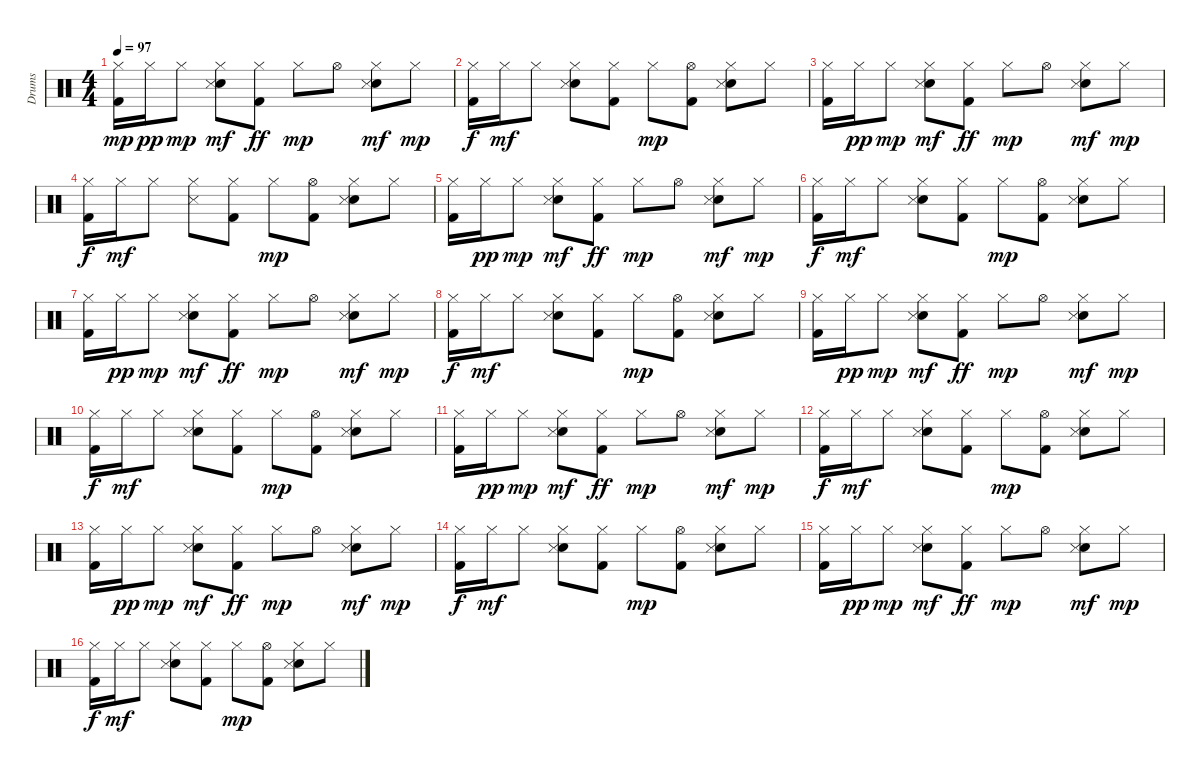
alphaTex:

\track ("Drums" "Drums") {instrument percussion}
\staff {score}
\articulation defaults
\ts (4 4)
\tempo 97
\clef neutral
\ks c
("Hi-Hat (closed)" "Kick (hit) 2").16{dy mp} "Hi-Hat (closed)".16{dy pp} "Hi-Hat (closed)".8{dy mp} ("Hi-Hat (closed)" "Hand Clap (hit)" "Snare (side stick) 3").8{dy mf} ("Hi-Hat (closed)" "Kick (hit) 2").8{dy ff} "Hi-Hat (closed)".8{dy mp} "Hi-Hat (open)".8 ("Hi-Hat (closed)" "Hand Clap (hit)" "Snare (side stick) 3").8{dy mf} "Hi-Hat (closed)".8{dy mp} |
("Hi-Hat (closed)" "Kick (hit) 2").16{dy f} "Hi-Hat (closed)".16{dy mf} "Hi-Hat (closed)".8 ("Hi-Hat (closed)" "Hand Clap (hit)" "Snare (side stick) 3").8 ("Hi-Hat (closed)" "Kick (hit) 2").8 "Hi-Hat (closed)".8{dy mp} ("Kick (hit) 2" "Hi-Hat (open)").8 ("Hi-Hat (closed)" "Hand Clap (hit)" "Snare (side stick) 3").8 "Hi-Hat (closed)".8 |
("Hi-Hat (closed)" "Kick (hit) 2").16 "Hi-Hat (closed)".16{dy pp} "Hi-Hat (closed)".8{dy mp} ("Hi-Hat (closed)" "Hand Clap (hit)" "Snare (side stick) 3").8{dy mf} ("Hi-Hat (closed)" "Kick (hit) 2").8{dy ff} "Hi-Hat (closed)".8{dy mp} "Hi-Hat (open)".8 ("Hi-Hat (closed)" "Hand Clap (hit)" "Snare (side stick) 3").8{dy mf} "Hi-Hat (closed)".8{dy mp} |
("Hi-Hat (closed)" "Kick (hit) 2").16{dy f} "Hi-Hat (closed)".16{dy mf} "Hi-Hat (closed)".8 ("Hi-Hat (closed)" "Snare (side stick) 3").8 ("Hi-Hat (closed)" "Kick (hit) 2").8 "Hi-Hat (closed)".8{dy mp} ("Kick (hit) 2" "Hi-Hat (open)").8 ("Hand Clap (hit)" "Hi-Hat (closed)" "Snare (side stick) 3").8 "Hi-Hat (closed)".8 |
("Hi-Hat (closed)" "Kick (hit) 2").16 "Hi-Hat (closed)".16{dy pp} "Hi-Hat (closed)".8{dy mp} ("Hi-Hat (closed)" "Hand Clap (hit)" "Snare (side stick) 3").8{dy mf} ("Hi-Hat (closed)" "Kick (hit) 2").8{dy ff} "Hi-Hat (closed)".8{dy mp} "Hi-Hat (open)".8 ("Hi-Hat (closed)" "Hand Clap (hit)" "Snare (side stick) 3").8{dy mf} "Hi-Hat (closed)".8{dy mp} |
("Hi-Hat (closed)" "Kick (hit) 2").16{dy f} "Hi-Hat (closed)".16{dy mf} "Hi-Hat (closed)".8 ("Hi-Hat (closed)" "Hand Clap (hit)" "Snare (side stick) 3").8 ("Hi-Hat (closed)" "Kick (hit) 2").8 "Hi-Hat (closed)".8{dy mp} ("Kick (hit) 2" "Hi-Hat (open)").8 ("Hi-Hat (closed)" "Hand Clap (hit)" "Snare (side stick) 3").8 "Hi-Hat (closed)".8 |
("Hi-Hat (closed)" "Kick (hit) 2").16 "Hi-Hat (closed)".16{dy pp} "Hi-Hat (closed)".8{dy mp} ("Hi-Hat (closed)" "Hand Clap (hit)" "Snare (side stick) 3").8{dy mf} ("Hi-Hat (closed)" "Kick (hit) 2").8{dy ff} "Hi-Hat (closed)".8{dy mp} "Hi-Hat (open)".8 ("Hi-Hat (closed)" "Hand Clap (hit)" "Snare (side stick) 3").8{dy mf} "Hi-Hat (closed)".8{dy mp} |
("Hi-Hat (closed)" "Kick (hit) 2").16{dy f} "Hi-Hat (closed)".16{dy mf} "Hi-Hat (closed)".8 ("Hi-Hat (closed)" "Hand Clap (hit)" "Snare (side stick) 3").8 ("Hi-Hat (closed)" "Kick (hit) 2").8 "Hi-Hat (closed)".8{dy mp} ("Kick (hit) 2" "Hi-Hat (open)").8 ("Hi-Hat (closed)" "Hand Clap (hit)" "Snare (side stick) 3").8 "Hi-Hat (closed)".8 |
("Hi-Hat (closed)" "Kick (hit) 2").16 "Hi-Hat (closed)".16{dy pp} "Hi-Hat (closed)".8{dy mp} ("Hi-Hat (closed)" "Hand Clap (hit)" "Snare (side stick) 3").8{dy mf} ("Hi-Hat (closed)" "Kick (hit) 2").8{dy ff} "Hi-Hat (closed)".8{dy mp} "Hi-Hat (open)".8 ("Hi-Hat (closed)" "Hand Clap (hit)" "Snare (side stick) 3").8{dy mf} "Hi-Hat (closed)".8{dy mp} |
("Hi-Hat (closed)" "Kick (hit) 2").16{dy f} "Hi-Hat (closed)".16{dy mf} "Hi-Hat (closed)".8 ("Hi-Hat (closed)" "Hand Clap (hit)" "Snare (side stick) 3").8 ("Hi-Hat (closed)" "Kick (hit) 2").8 "Hi-Hat (closed)".8{dy mp} ("Kick (hit) 2" "Hi-Hat (open)").8 ("Hi-Hat (closed)" "Hand Clap (hit)" "Snare (side stick) 3").8 "Hi-Hat (closed)".8 |
("Hi-Hat (closed)" "Kick (hit) 2").16 "Hi-Hat (closed)".16{dy pp} "Hi-Hat (closed)".8{dy mp} ("Hi-Hat (closed)" "Hand Clap (hit)" "Snare (side stick) 3").8{dy mf} ("Hi-Hat (closed)" "Kick (hit) 2").8{dy ff} "Hi-Hat (closed)".8{dy mp} "Hi-Hat (open)".8 ("Hi-Hat (closed)" "Hand Clap (hit)" "Snare (side stick) 3").8{dy mf} "Hi-Hat (closed)".8{dy mp} |
("Hi-Hat (closed)" "Kick (hit) 2").16{dy f} "Hi-Hat (closed)".16{dy mf} "Hi-Hat (closed)".8 ("Hi-Hat (closed)" "Hand Clap (hit)" "Snare (side stick) 3").8 ("Hi-Hat (closed)" "Kick (hit) 2").8 "Hi-Hat (closed)".8{dy mp} ("Kick (hit) 2" "Hi-Hat (open)").8 ("Hi-Hat (closed)" "Hand Clap (hit)" "Snare (side stick) 3").8 "Hi-Hat (closed)".8 |
("Hi-Hat (closed)" "Kick (hit) 2").16 "Hi-Hat (closed)".16{dy pp} "Hi-Hat (closed)".8{dy mp} ("Hi-Hat (closed)" "Hand Clap (hit)" "Snare (side stick) 3").8{dy mf} ("Hi-Hat (closed)" "Kick (hit) 2").8{dy ff} "Hi-Hat (closed)".8{dy mp} "Hi-Hat (open)".8 ("Hi-Hat (closed)" "Hand Clap (hit)" "Snare (side stick) 3").8{dy mf} "Hi-Hat (closed)".8{dy mp} |
("Hi-Hat (closed)" "Kick (hit) 2").16{dy f} "Hi-Hat (closed)".16{dy mf} "Hi-Hat (closed)".8 ("Hi-Hat (closed)" "Hand Clap (hit)" "Snare (side stick) 3").8 ("Hi-Hat (closed)" "Kick (hit) 2").8 "Hi-Hat (closed)".8{dy mp} ("Kick (hit) 2" "Hi-Hat (open)").8 ("Hi-Hat (closed)" "Hand Clap (hit)" "Snare (side stick) 3").8 "Hi-Hat (closed)".8 |
("Hi-Hat (closed)" "Kick (hit) 2").16 "Hi-Hat (closed)".16{dy pp} "Hi-Hat (closed)".8{dy mp} ("Hi-Hat (closed)" "Hand Clap (hit)" "Snare (side stick) 3").8{dy mf} ("Hi-Hat (closed)" "Kick (hit) 2").8{dy ff} "Hi-Hat (closed)".8{dy mp} "Hi-Hat (open)".8 ("Hi-Hat (closed)" "Hand Clap (hit)" "Snare (side stick) 3").8{dy mf} "Hi-Hat (closed)".8{dy mp} |
("Hi-Hat (closed)" "Kick (hit) 2").16{dy f} "Hi-Hat (closed)".16{dy mf} "Hi-Hat (closed)".8 ("Hi-Hat (closed)" "Hand Clap (hit)" "Snare (side stick) 3").8 ("Hi-Hat (closed)" "Kick (hit) 2").8 "Hi-Hat (closed)".8{dy mp} ("Kick (hit) 2" "Hi-Hat (open)").8 ("Hi-Hat (closed)" "Hand Clap (hit)" "Snare (side stick) 3").8 "Hi-Hat (closed)".8
